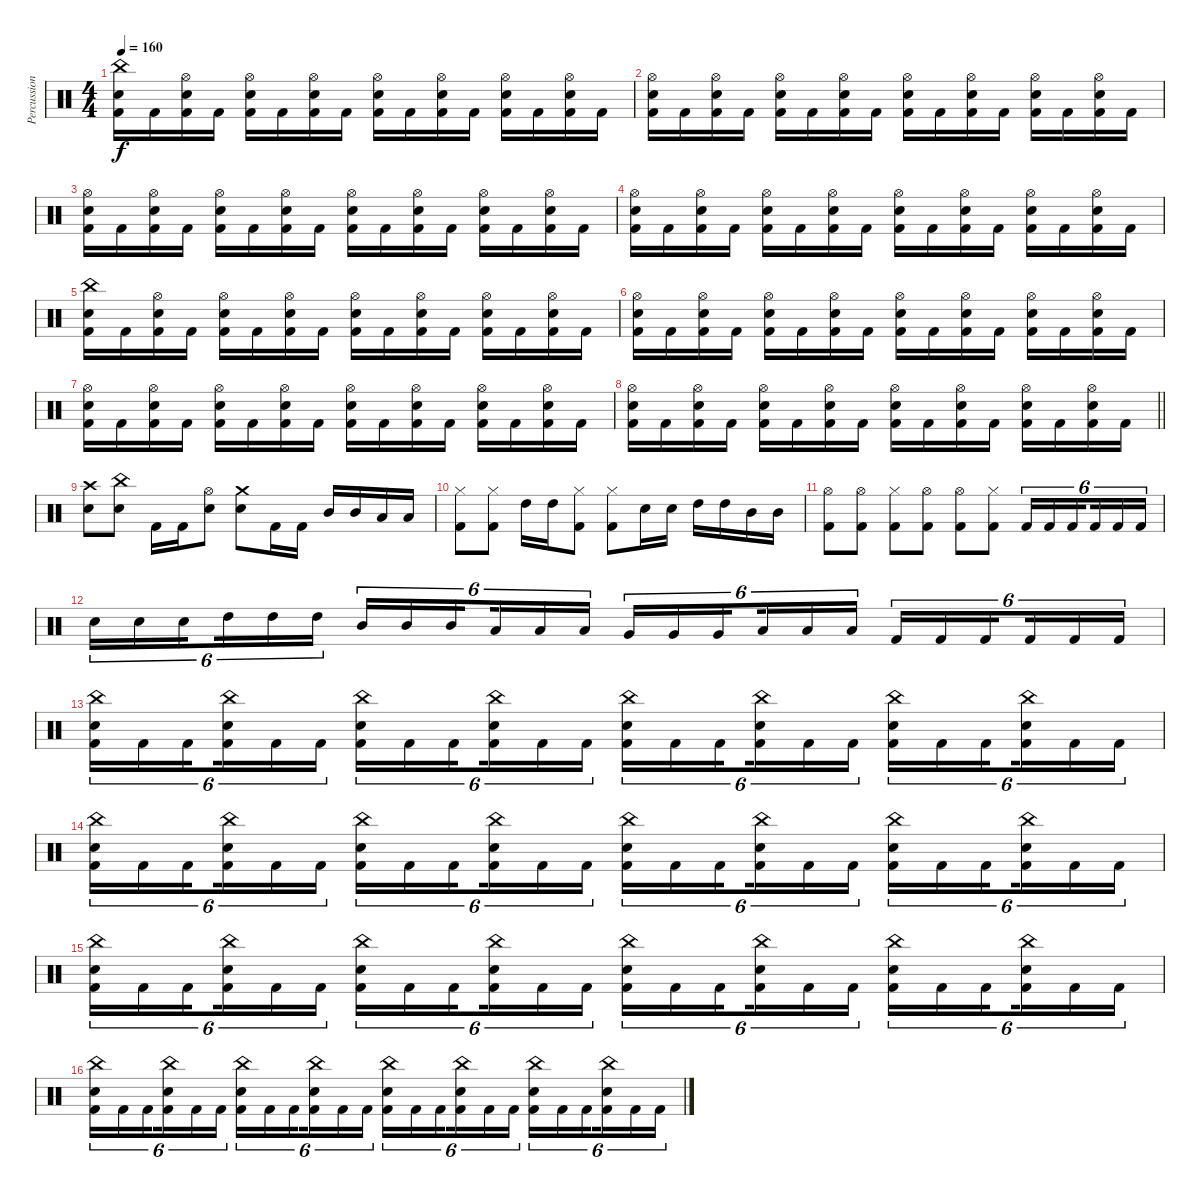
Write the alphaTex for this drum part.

\track ("Percussions" "Percussion") {instrument percussion}
\staff {score}
\articulation defaults
\ts (4 4)
\tempo 160
\clef neutral
\ks c
("China (hit)" "Electric Snare (hit)" "Kick (hit) 2").16{dy f} "Kick (hit) 2".16 ("Hi-Hat (open)" "Electric Snare (hit)" "Kick (hit) 2").16 "Kick (hit) 2".16 ("Hi-Hat (open)" "Electric Snare (hit)" "Kick (hit) 2").16 "Kick (hit) 2".16 ("Hi-Hat (open)" "Electric Snare (hit)" "Kick (hit) 2").16 "Kick (hit) 2".16 ("Hi-Hat (open)" "Electric Snare (hit)" "Kick (hit) 2").16 "Kick (hit) 2".16 ("Hi-Hat (open)" "Electric Snare (hit)" "Kick (hit) 2").16 "Kick (hit) 2".16 ("Hi-Hat (open)" "Electric Snare (hit)" "Kick (hit) 2").16 "Kick (hit) 2".16 ("Hi-Hat (open)" "Electric Snare (hit)" "Kick (hit) 2").16 "Kick (hit) 2".16 |
("Hi-Hat (open)" "Electric Snare (hit)" "Kick (hit) 2").16 "Kick (hit) 2".16 ("Hi-Hat (open)" "Electric Snare (hit)" "Kick (hit) 2").16 "Kick (hit) 2".16 ("Hi-Hat (open)" "Electric Snare (hit)" "Kick (hit) 2").16 "Kick (hit) 2".16 ("Hi-Hat (open)" "Electric Snare (hit)" "Kick (hit) 2").16 "Kick (hit) 2".16 ("Hi-Hat (open)" "Electric Snare (hit)" "Kick (hit) 2").16 "Kick (hit) 2".16 ("Hi-Hat (open)" "Electric Snare (hit)" "Kick (hit) 2").16 "Kick (hit) 2".16 ("Hi-Hat (open)" "Electric Snare (hit)" "Kick (hit) 2").16 "Kick (hit) 2".16 ("Hi-Hat (open)" "Electric Snare (hit)" "Kick (hit) 2").16 "Kick (hit) 2".16 |
("Hi-Hat (open)" "Electric Snare (hit)" "Kick (hit) 2").16 "Kick (hit) 2".16 ("Hi-Hat (open)" "Electric Snare (hit)" "Kick (hit) 2").16 "Kick (hit) 2".16 ("Hi-Hat (open)" "Electric Snare (hit)" "Kick (hit) 2").16 "Kick (hit) 2".16 ("Hi-Hat (open)" "Electric Snare (hit)" "Kick (hit) 2").16 "Kick (hit) 2".16 ("Hi-Hat (open)" "Electric Snare (hit)" "Kick (hit) 2").16 "Kick (hit) 2".16 ("Hi-Hat (open)" "Electric Snare (hit)" "Kick (hit) 2").16 "Kick (hit) 2".16 ("Hi-Hat (open)" "Electric Snare (hit)" "Kick (hit) 2").16 "Kick (hit) 2".16 ("Hi-Hat (open)" "Electric Snare (hit)" "Kick (hit) 2").16 "Kick (hit) 2".16 |
("Hi-Hat (open)" "Electric Snare (hit)" "Kick (hit) 2").16 "Kick (hit) 2".16 ("Hi-Hat (open)" "Electric Snare (hit)" "Kick (hit) 2").16 "Kick (hit) 2".16 ("Hi-Hat (open)" "Electric Snare (hit)" "Kick (hit) 2").16 "Kick (hit) 2".16 ("Hi-Hat (open)" "Electric Snare (hit)" "Kick (hit) 2").16 "Kick (hit) 2".16 ("Hi-Hat (open)" "Electric Snare (hit)" "Kick (hit) 2").16 "Kick (hit) 2".16 ("Hi-Hat (open)" "Electric Snare (hit)" "Kick (hit) 2").16 "Kick (hit) 2".16 ("Hi-Hat (open)" "Electric Snare (hit)" "Kick (hit) 2").16 "Kick (hit) 2".16 ("Hi-Hat (open)" "Electric Snare (hit)" "Kick (hit) 2").16 "Kick (hit) 2".16 |
("China (hit)" "Electric Snare (hit)" "Kick (hit) 2").16 "Kick (hit) 2".16 ("Hi-Hat (open)" "Electric Snare (hit)" "Kick (hit) 2").16 "Kick (hit) 2".16 ("Hi-Hat (open)" "Electric Snare (hit)" "Kick (hit) 2").16 "Kick (hit) 2".16 ("Hi-Hat (open)" "Electric Snare (hit)" "Kick (hit) 2").16 "Kick (hit) 2".16 ("Hi-Hat (open)" "Electric Snare (hit)" "Kick (hit) 2").16 "Kick (hit) 2".16 ("Hi-Hat (open)" "Electric Snare (hit)" "Kick (hit) 2").16 "Kick (hit) 2".16 ("Hi-Hat (open)" "Electric Snare (hit)" "Kick (hit) 2").16 "Kick (hit) 2".16 ("Hi-Hat (open)" "Electric Snare (hit)" "Kick (hit) 2").16 "Kick (hit) 2".16 |
("Hi-Hat (open)" "Electric Snare (hit)" "Kick (hit) 2").16 "Kick (hit) 2".16 ("Hi-Hat (open)" "Electric Snare (hit)" "Kick (hit) 2").16 "Kick (hit) 2".16 ("Hi-Hat (open)" "Electric Snare (hit)" "Kick (hit) 2").16 "Kick (hit) 2".16 ("Hi-Hat (open)" "Electric Snare (hit)" "Kick (hit) 2").16 "Kick (hit) 2".16 ("Hi-Hat (open)" "Electric Snare (hit)" "Kick (hit) 2").16 "Kick (hit) 2".16 ("Hi-Hat (open)" "Electric Snare (hit)" "Kick (hit) 2").16 "Kick (hit) 2".16 ("Hi-Hat (open)" "Electric Snare (hit)" "Kick (hit) 2").16 "Kick (hit) 2".16 ("Hi-Hat (open)" "Electric Snare (hit)" "Kick (hit) 2").16 "Kick (hit) 2".16 |
("Hi-Hat (open)" "Electric Snare (hit)" "Kick (hit) 2").16 "Kick (hit) 2".16 ("Hi-Hat (open)" "Electric Snare (hit)" "Kick (hit) 2").16 "Kick (hit) 2".16 ("Hi-Hat (open)" "Electric Snare (hit)" "Kick (hit) 2").16 "Kick (hit) 2".16 ("Hi-Hat (open)" "Electric Snare (hit)" "Kick (hit) 2").16 "Kick (hit) 2".16 ("Hi-Hat (open)" "Electric Snare (hit)" "Kick (hit) 2").16 "Kick (hit) 2".16 ("Hi-Hat (open)" "Electric Snare (hit)" "Kick (hit) 2").16 "Kick (hit) 2".16 ("Hi-Hat (open)" "Electric Snare (hit)" "Kick (hit) 2").16 "Kick (hit) 2".16 ("Hi-Hat (open)" "Electric Snare (hit)" "Kick (hit) 2").16 "Kick (hit) 2".16 |
\barLineRight lightlight
("Hi-Hat (open)" "Electric Snare (hit)" "Kick (hit) 2").16 "Kick (hit) 2".16 ("Hi-Hat (open)" "Electric Snare (hit)" "Kick (hit) 2").16 "Kick (hit) 2".16 ("Hi-Hat (open)" "Electric Snare (hit)" "Kick (hit) 2").16 "Kick (hit) 2".16 ("Hi-Hat (open)" "Electric Snare (hit)" "Kick (hit) 2").16 "Kick (hit) 2".16 ("Hi-Hat (open)" "Electric Snare (hit)" "Kick (hit) 2").16 "Kick (hit) 2".16 ("Hi-Hat (open)" "Electric Snare (hit)" "Kick (hit) 2").16 "Kick (hit) 2".16 ("Hi-Hat (open)" "Electric Snare (hit)" "Kick (hit) 2").16 "Kick (hit) 2".16 ("Hi-Hat (open)" "Electric Snare (hit)" "Kick (hit) 2").16 "Kick (hit) 2".16 |
("Crash high (hit)" "Electric Snare (hit)").8 ("China (hit)" "Electric Snare (hit)").8 "Kick (hit) 2".16 "Kick (hit) 2".16 ("Hi-Hat (open)" "Electric Snare (hit)").8 ("Crash medium (hit)" "Electric Snare (hit)").8 "Kick (hit) 2".16 "Kick (hit) 2".16 "Mid Tom (hit)".16 "Mid Tom (hit)".16 "Low Tom (hit)".16 "Low Tom (hit)".16 |
("Hi-Hat (closed)" "Kick (hit) 2").8 ("Hi-Hat (closed)" "Kick (hit) 2").8 "High Tom (hit)".16 "High Tom (hit)".16 ("Hi-Hat (closed)" "Kick (hit) 2").8 ("Hi-Hat (closed)" "Kick (hit) 2").8 "Electric Snare (hit)".16 "Electric Snare (hit)".16 "High Tom (hit)".16 "High Tom (hit)".16 "Mid Tom (hit)".16 "Mid Tom (hit)".16 |
("Hi-Hat (open)" "Kick (hit) 2").8 ("Hi-Hat (open)" "Kick (hit) 2").8 ("Hi-Hat (closed)" "Kick (hit) 2").8 ("Hi-Hat (open)" "Kick (hit) 2").8 ("Hi-Hat (open)" "Kick (hit) 2").8 ("Hi-Hat (closed)" "Kick (hit) 2").8 "Kick (hit) 2".16{tu (6 4)} "Kick (hit) 2".16{tu (6 4)} "Kick (hit) 2".16{tu (6 4) beam splitsecondary} "Kick (hit) 2".16{tu (6 4)} "Kick (hit) 2".16{tu (6 4)} "Kick (hit) 2".16{tu (6 4)} |
"Electric Snare (hit)".16{tu (6 4)} "Electric Snare (hit)".16{tu (6 4)} "Electric Snare (hit)".16{tu (6 4) beam splitsecondary} "High Tom (hit)".16{tu (6 4)} "High Tom (hit)".16{tu (6 4)} "High Tom (hit)".16{tu (6 4)} "Mid Tom (hit)".16{tu (6 4)} "Mid Tom (hit)".16{tu (6 4)} "Mid Tom (hit)".16{tu (6 4) beam splitsecondary} "Low Tom (hit)".16{tu (6 4)} "Low Tom (hit)".16{tu (6 4)} "Low Tom (hit)".16{tu (6 4)} "Very Low Tom (hit)".16{tu (6 4)} "Very Low Tom (hit)".16{tu (6 4)} "Very Low Tom (hit)".16{tu (6 4) beam splitsecondary} "Low Floor Tom (hit)".16{tu (6 4)} "Low Floor Tom (hit)".16{tu (6 4)} "Low Floor Tom (hit)".16{tu (6 4)} "Kick (hit) 2".16{tu (6 4)} "Kick (hit) 2".16{tu (6 4)} "Kick (hit) 2".16{tu (6 4) beam splitsecondary} "Kick (hit) 2".16{tu (6 4)} "Kick (hit) 2".16{tu (6 4)} "Kick (hit) 2".16{tu (6 4)} |
("Electric Snare (hit)" "China (hit)" "Kick (hit) 2").16{tu (6 4)} "Kick (hit) 2".16{tu (6 4)} "Kick (hit) 2".16{tu (6 4) beam splitsecondary} ("Electric Snare (hit)" "China (hit)" "Kick (hit) 2").16{tu (6 4)} "Kick (hit) 2".16{tu (6 4)} "Kick (hit) 2".16{tu (6 4)} ("Electric Snare (hit)" "China (hit)" "Kick (hit) 2").16{tu (6 4)} "Kick (hit) 2".16{tu (6 4)} "Kick (hit) 2".16{tu (6 4) beam splitsecondary} ("Electric Snare (hit)" "China (hit)" "Kick (hit) 2").16{tu (6 4)} "Kick (hit) 2".16{tu (6 4)} "Kick (hit) 2".16{tu (6 4)} ("Electric Snare (hit)" "China (hit)" "Kick (hit) 2").16{tu (6 4)} "Kick (hit) 2".16{tu (6 4)} "Kick (hit) 2".16{tu (6 4) beam splitsecondary} ("Electric Snare (hit)" "China (hit)" "Kick (hit) 2").16{tu (6 4)} "Kick (hit) 2".16{tu (6 4)} "Kick (hit) 2".16{tu (6 4)} ("Electric Snare (hit)" "China (hit)" "Kick (hit) 2").16{tu (6 4)} "Kick (hit) 2".16{tu (6 4)} "Kick (hit) 2".16{tu (6 4) beam splitsecondary} ("Electric Snare (hit)" "China (hit)" "Kick (hit) 2").16{tu (6 4)} "Kick (hit) 2".16{tu (6 4)} "Kick (hit) 2".16{tu (6 4)} |
("Electric Snare (hit)" "China (hit)" "Kick (hit) 2").16{tu (6 4)} "Kick (hit) 2".16{tu (6 4)} "Kick (hit) 2".16{tu (6 4) beam splitsecondary} ("Electric Snare (hit)" "China (hit)" "Kick (hit) 2").16{tu (6 4)} "Kick (hit) 2".16{tu (6 4)} "Kick (hit) 2".16{tu (6 4)} ("Electric Snare (hit)" "China (hit)" "Kick (hit) 2").16{tu (6 4)} "Kick (hit) 2".16{tu (6 4)} "Kick (hit) 2".16{tu (6 4) beam splitsecondary} ("Electric Snare (hit)" "China (hit)" "Kick (hit) 2").16{tu (6 4)} "Kick (hit) 2".16{tu (6 4)} "Kick (hit) 2".16{tu (6 4)} ("Electric Snare (hit)" "China (hit)" "Kick (hit) 2").16{tu (6 4)} "Kick (hit) 2".16{tu (6 4)} "Kick (hit) 2".16{tu (6 4) beam splitsecondary} ("Electric Snare (hit)" "China (hit)" "Kick (hit) 2").16{tu (6 4)} "Kick (hit) 2".16{tu (6 4)} "Kick (hit) 2".16{tu (6 4)} ("Electric Snare (hit)" "China (hit)" "Kick (hit) 2").16{tu (6 4)} "Kick (hit) 2".16{tu (6 4)} "Kick (hit) 2".16{tu (6 4) beam splitsecondary} ("Electric Snare (hit)" "China (hit)" "Kick (hit) 2").16{tu (6 4)} "Kick (hit) 2".16{tu (6 4)} "Kick (hit) 2".16{tu (6 4)} |
("Electric Snare (hit)" "China (hit)" "Kick (hit) 2").16{tu (6 4)} "Kick (hit) 2".16{tu (6 4)} "Kick (hit) 2".16{tu (6 4) beam splitsecondary} ("Electric Snare (hit)" "China (hit)" "Kick (hit) 2").16{tu (6 4)} "Kick (hit) 2".16{tu (6 4)} "Kick (hit) 2".16{tu (6 4)} ("Electric Snare (hit)" "China (hit)" "Kick (hit) 2").16{tu (6 4)} "Kick (hit) 2".16{tu (6 4)} "Kick (hit) 2".16{tu (6 4) beam splitsecondary} ("Electric Snare (hit)" "China (hit)" "Kick (hit) 2").16{tu (6 4)} "Kick (hit) 2".16{tu (6 4)} "Kick (hit) 2".16{tu (6 4)} ("Electric Snare (hit)" "China (hit)" "Kick (hit) 2").16{tu (6 4)} "Kick (hit) 2".16{tu (6 4)} "Kick (hit) 2".16{tu (6 4) beam splitsecondary} ("Electric Snare (hit)" "China (hit)" "Kick (hit) 2").16{tu (6 4)} "Kick (hit) 2".16{tu (6 4)} "Kick (hit) 2".16{tu (6 4)} ("Electric Snare (hit)" "China (hit)" "Kick (hit) 2").16{tu (6 4)} "Kick (hit) 2".16{tu (6 4)} "Kick (hit) 2".16{tu (6 4) beam splitsecondary} ("Electric Snare (hit)" "China (hit)" "Kick (hit) 2").16{tu (6 4)} "Kick (hit) 2".16{tu (6 4)} "Kick (hit) 2".16{tu (6 4)} |
("Electric Snare (hit)" "China (hit)" "Kick (hit) 2").16{tu (6 4)} "Kick (hit) 2".16{tu (6 4)} "Kick (hit) 2".16{tu (6 4) beam splitsecondary} ("Electric Snare (hit)" "China (hit)" "Kick (hit) 2").16{tu (6 4)} "Kick (hit) 2".16{tu (6 4)} "Kick (hit) 2".16{tu (6 4)} ("Electric Snare (hit)" "China (hit)" "Kick (hit) 2").16{tu (6 4)} "Kick (hit) 2".16{tu (6 4)} "Kick (hit) 2".16{tu (6 4) beam splitsecondary} ("Electric Snare (hit)" "China (hit)" "Kick (hit) 2").16{tu (6 4)} "Kick (hit) 2".16{tu (6 4)} "Kick (hit) 2".16{tu (6 4)} ("Electric Snare (hit)" "China (hit)" "Kick (hit) 2").16{tu (6 4)} "Kick (hit) 2".16{tu (6 4)} "Kick (hit) 2".16{tu (6 4) beam splitsecondary} ("Electric Snare (hit)" "China (hit)" "Kick (hit) 2").16{tu (6 4)} "Kick (hit) 2".16{tu (6 4)} "Kick (hit) 2".16{tu (6 4)} ("Electric Snare (hit)" "China (hit)" "Kick (hit) 2").16{tu (6 4)} "Kick (hit) 2".16{tu (6 4)} "Kick (hit) 2".16{tu (6 4) beam splitsecondary} ("Electric Snare (hit)" "China (hit)" "Kick (hit) 2").16{tu (6 4)} "Kick (hit) 2".16{tu (6 4)} "Kick (hit) 2".16{tu (6 4)}
